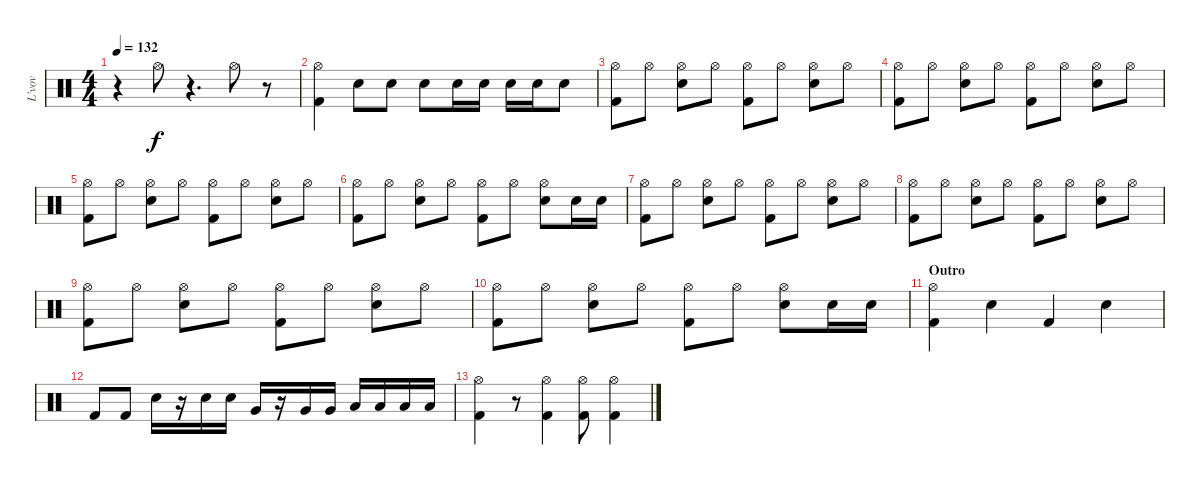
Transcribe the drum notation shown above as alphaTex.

\track ("L'vov" "L'vov") {instrument percussion}
\staff {score}
\articulation defaults
\ts (4 4)
\tempo 132
\clef neutral
\ks c
r.4{dy f} "Hi-Hat (open)".8 r.4{d} "Hi-Hat (open)".8 r.8 |
("Hi-Hat (open)" "Kick (hit) 2").4 "Electric Snare (hit)".8 "Snare (hit) 2".8 "Snare (hit) 2".8 "Snare (hit) 2".16 "Snare (hit) 2".16 "Snare (hit) 2".16 "Snare (hit) 2".16 "Snare (hit) 2".8 |
("Hi-Hat (open)" "Kick (hit) 2").8 "Hi-Hat (open)".8 ("Hi-Hat (open)" "Snare (hit) 2").8 "Hi-Hat (open)".8 ("Hi-Hat (open)" "Kick (hit) 2").8 "Hi-Hat (open)".8 ("Hi-Hat (open)" "Snare (hit) 2").8 "Hi-Hat (open)".8 |
("Hi-Hat (open)" "Kick (hit) 2").8 "Hi-Hat (open)".8 ("Hi-Hat (open)" "Snare (hit) 2").8 "Hi-Hat (open)".8 ("Hi-Hat (open)" "Kick (hit) 2").8 "Hi-Hat (open)".8 ("Hi-Hat (open)" "Snare (hit) 2").8 "Hi-Hat (open)".8 |
("Hi-Hat (open)" "Kick (hit) 2").8 "Hi-Hat (open)".8 ("Hi-Hat (open)" "Snare (hit) 2").8 "Hi-Hat (open)".8 ("Hi-Hat (open)" "Kick (hit) 2").8 "Hi-Hat (open)".8 ("Hi-Hat (open)" "Snare (hit) 2").8 "Hi-Hat (open)".8 |
("Hi-Hat (open)" "Kick (hit) 2").8 "Hi-Hat (open)".8 ("Hi-Hat (open)" "Snare (hit) 2").8 "Hi-Hat (open)".8 ("Hi-Hat (open)" "Kick (hit) 2").8 "Hi-Hat (open)".8 ("Hi-Hat (open)" "Snare (hit) 2").8 "Snare (hit) 2".16 "Snare (hit) 2".16 |
("Hi-Hat (open)" "Kick (hit) 2").8 "Hi-Hat (open)".8 ("Hi-Hat (open)" "Snare (hit) 2").8 "Hi-Hat (open)".8 ("Hi-Hat (open)" "Kick (hit) 2").8 "Hi-Hat (open)".8 ("Hi-Hat (open)" "Snare (hit) 2").8 "Hi-Hat (open)".8 |
("Hi-Hat (open)" "Kick (hit) 2").8 "Hi-Hat (open)".8 ("Hi-Hat (open)" "Snare (hit) 2").8 "Hi-Hat (open)".8 ("Hi-Hat (open)" "Kick (hit) 2").8 "Hi-Hat (open)".8 ("Hi-Hat (open)" "Snare (hit) 2").8 "Hi-Hat (open)".8 |
("Hi-Hat (open)" "Kick (hit) 2").8 "Hi-Hat (open)".8 ("Hi-Hat (open)" "Snare (hit) 2").8 "Hi-Hat (open)".8 ("Hi-Hat (open)" "Kick (hit) 2").8 "Hi-Hat (open)".8 ("Hi-Hat (open)" "Snare (hit) 2").8 "Hi-Hat (open)".8 |
("Hi-Hat (open)" "Kick (hit) 2").8 "Hi-Hat (open)".8 ("Hi-Hat (open)" "Snare (hit) 2").8 "Hi-Hat (open)".8 ("Hi-Hat (open)" "Kick (hit) 2").8 "Hi-Hat (open)".8 ("Hi-Hat (open)" "Snare (hit) 2").8 "Snare (hit) 2".16 "Snare (hit) 2".16 |
\section ("" "Outro")
("Kick (hit) 2" "Hi-Hat (open)").4 "Snare (hit) 2".4 "Kick (hit) 2".4 "Snare (hit) 2".4 |
"Kick (hit) 2".8 "Kick (hit) 2".8 "Snare (hit) 2".16 r.16 "Snare (hit) 2".16 "Snare (hit) 2".16 "Very Low Tom (hit)".16 r.16 "Very Low Tom (hit)".16 "Very Low Tom (hit)".16 "Low Tom (hit)".16 "Low Tom (hit)".16 "Low Floor Tom (hit)".16 "Low Floor Tom (hit)".16 |
("Kick (hit) 2" "Hi-Hat (open)").4 r.8 ("Kick (hit) 2" "Hi-Hat (open)").4 ("Hi-Hat (open)" "Kick (hit) 2").8 ("Kick (hit) 2" "Hi-Hat (open)").4
